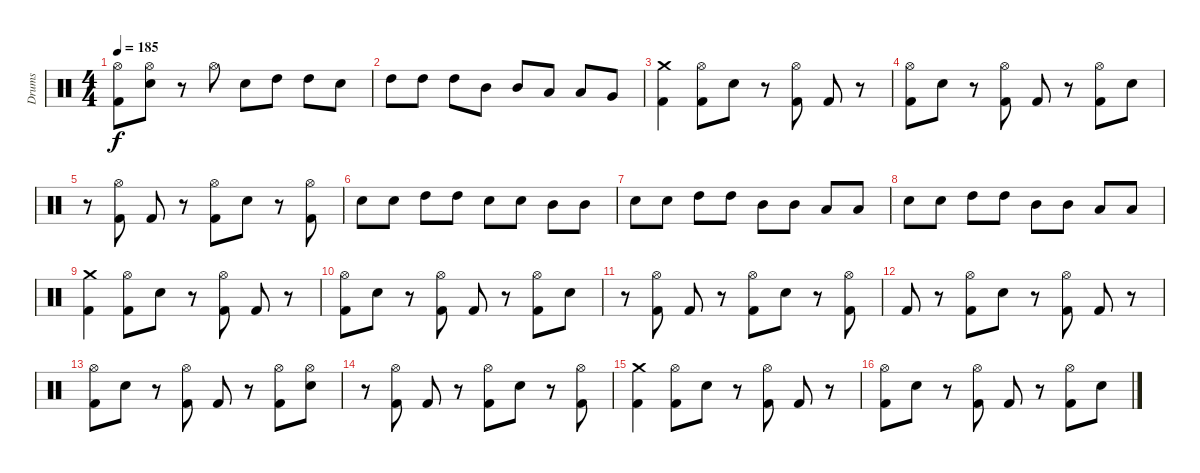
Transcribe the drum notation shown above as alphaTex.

\track ("Drums" "Drums") {instrument percussion}
\staff {score}
\articulation defaults
\ts (4 4)
\tempo 185
\clef neutral
\ks c
("Hi-Hat (open)" "Kick (hit) 2").8{dy f} ("Hi-Hat (open)" "Electric Snare (hit)").8 r.8 "Hi-Hat (open)".8 "Electric Snare (hit)".8 "High Tom (hit)".8 "High Tom (hit)".8 "Electric Snare (hit)".8 |
"High Tom (hit)".8 "High Tom (hit)".8 "High Tom (hit)".8 "Mid Tom (hit)".8 "Mid Tom (hit)".8 "Low Tom (hit)".8 "Low Tom (hit)".8 "Very Low Tom (hit)".8 |
("Crash medium (hit)" "Kick (hit) 2").4 ("Hi-Hat (open)" "Kick (hit) 2").8 "Electric Snare (hit)".8 r.8 ("Hi-Hat (open)" "Kick (hit) 2").8 "Kick (hit) 2".8 r.8 |
("Hi-Hat (open)" "Kick (hit) 2").8 "Electric Snare (hit)".8 r.8 ("Hi-Hat (open)" "Kick (hit) 2").8 "Kick (hit) 2".8 r.8 ("Hi-Hat (open)" "Kick (hit) 2").8 "Electric Snare (hit)".8 |
r.8 ("Hi-Hat (open)" "Kick (hit) 2").8 "Kick (hit) 2".8 r.8 ("Hi-Hat (open)" "Kick (hit) 2").8 "Electric Snare (hit)".8 r.8 ("Hi-Hat (open)" "Kick (hit) 2").8 |
"Electric Snare (hit)".8 "Electric Snare (hit)".8 "High Tom (hit)".8 "High Tom (hit)".8 "Electric Snare (hit)".8 "Electric Snare (hit)".8 "Mid Tom (hit)".8 "Mid Tom (hit)".8 |
"Electric Snare (hit)".8 "Electric Snare (hit)".8 "High Tom (hit)".8 "High Tom (hit)".8 "Mid Tom (hit)".8 "Mid Tom (hit)".8 "Low Tom (hit)".8 "Low Tom (hit)".8 |
"Electric Snare (hit)".8 "Electric Snare (hit)".8 "High Tom (hit)".8 "High Tom (hit)".8 "Mid Tom (hit)".8 "Mid Tom (hit)".8 "Low Tom (hit)".8 "Low Tom (hit)".8 |
("Crash medium (hit)" "Kick (hit) 2").4{volume 7} ("Hi-Hat (open)" "Kick (hit) 2").8 "Electric Snare (hit)".8 r.8 ("Hi-Hat (open)" "Kick (hit) 2").8 "Kick (hit) 2".8 r.8 |
("Hi-Hat (open)" "Kick (hit) 2").8 "Electric Snare (hit)".8 r.8 ("Hi-Hat (open)" "Kick (hit) 2").8 "Kick (hit) 2".8 r.8 ("Hi-Hat (open)" "Kick (hit) 2").8 "Electric Snare (hit)".8 |
r.8 ("Hi-Hat (open)" "Kick (hit) 2").8 "Kick (hit) 2".8 r.8 ("Hi-Hat (open)" "Kick (hit) 2").8 "Electric Snare (hit)".8 r.8 ("Hi-Hat (open)" "Kick (hit) 2").8 |
"Kick (hit) 2".8 r.8 ("Hi-Hat (open)" "Kick (hit) 2").8 "Electric Snare (hit)".8 r.8 ("Hi-Hat (open)" "Kick (hit) 2").8 "Kick (hit) 2".8 r.8 |
("Hi-Hat (open)" "Kick (hit) 2").8{volume 3} "Electric Snare (hit)".8 r.8 ("Hi-Hat (open)" "Kick (hit) 2").8 "Kick (hit) 2".8 r.8 ("Hi-Hat (open)" "Kick (hit) 2").8 ("Hi-Hat (open)" "Electric Snare (hit)").8 |
r.8 ("Hi-Hat (open)" "Kick (hit) 2").8 "Kick (hit) 2".8 r.8 ("Hi-Hat (open)" "Kick (hit) 2").8 "Electric Snare (hit)".8 r.8 ("Hi-Hat (open)" "Kick (hit) 2").8 |
("Crash medium (hit)" "Kick (hit) 2").4 ("Hi-Hat (open)" "Kick (hit) 2").8 "Electric Snare (hit)".8 r.8 ("Hi-Hat (open)" "Kick (hit) 2").8 "Kick (hit) 2".8 r.8 |
("Hi-Hat (open)" "Kick (hit) 2").8 "Electric Snare (hit)".8 r.8 ("Hi-Hat (open)" "Kick (hit) 2").8 "Kick (hit) 2".8 r.8 ("Hi-Hat (open)" "Kick (hit) 2").8 "Electric Snare (hit)".8
